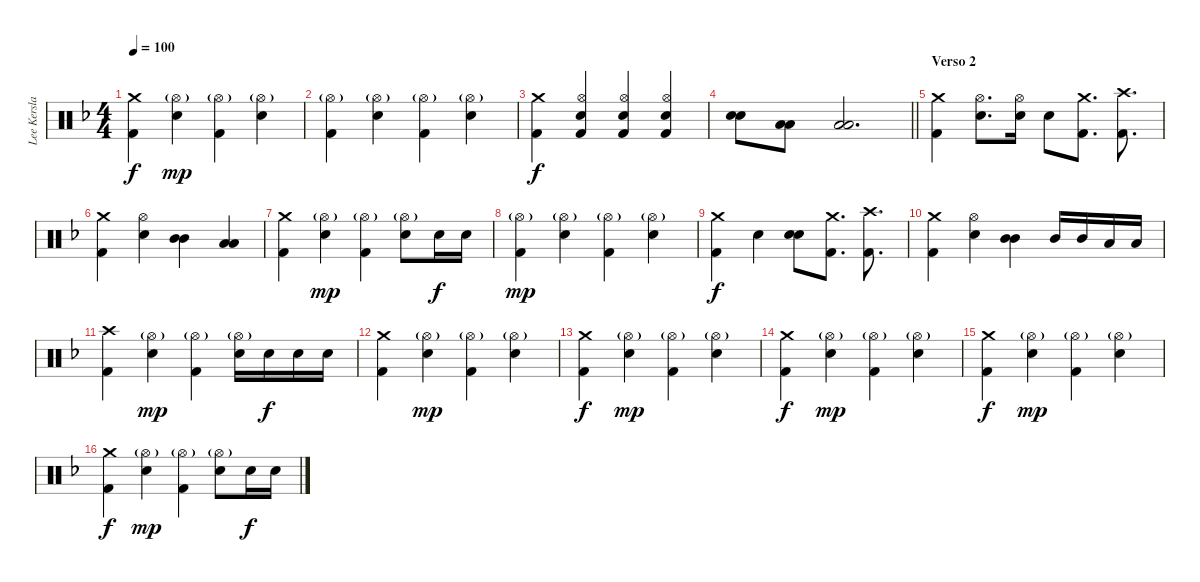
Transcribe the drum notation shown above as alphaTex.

\track ("Lee Kerslake - Drums" "Lee Kersla") {instrument percussion}
\staff {score}
\articulation defaults
\ts (4 4)
\tempo 100
\clef neutral
\ks dminor
("Crash medium (hit)" "Kick (hit) 2").4{dy f} ("Hi-Hat (open)"{g} "Snare (hit) 2").4{dy mp} ("Hi-Hat (open)"{g} "Kick (hit) 2").4 ("Hi-Hat (open)"{g} "Snare (hit) 2").4 |
("Hi-Hat (open)"{g} "Kick (hit) 2").4 ("Hi-Hat (open)"{g} "Snare (hit) 2").4 ("Hi-Hat (open)"{g} "Kick (hit) 2").4 ("Hi-Hat (open)"{g} "Snare (hit) 2").4 |
("Crash medium (hit)" "Kick (hit) 2").4{dy f} ("Hi-Hat (open)" "Snare (hit) 2" "Kick (hit) 2").4 ("Hi-Hat (open)" "Snare (hit) 2" "Kick (hit) 2").4 ("Hi-Hat (open)" "Snare (hit) 2" "Kick (hit) 2").4 |
\barLineRight lightlight
("Snare (hit) 2" "Snare (hit) 2").8{bd 240} ("Low Tom (hit)" "Low Tom (hit)").8{bd 240} ("Low Tom (hit)" "Low Tom (hit)").2{d bd 240} |
\section ("" "Verso 2")
("Crash medium (hit)" "Kick (hit) 2").4 ("Hi-Hat (open)" "Snare (hit) 2").8{d} ("Hi-Hat (open)" "Snare (hit) 2").16 "Snare (hit) 2".8 ("Crash medium (hit)" "Kick (hit) 2").8{d} ("Crash high (hit)" "Kick (hit) 2").8{d} |
("Crash medium (hit)" "Kick (hit) 2").4 ("Hi-Hat (open)" "Snare (hit) 2").4 ("Mid Tom (hit)" "Mid Tom (hit)").4{bd 240} ("Low Tom (hit)" "Low Tom (hit)").4{bd 240} |
("Crash medium (hit)" "Kick (hit) 2").4 ("Hi-Hat (open)"{g} "Snare (hit) 2").4{dy mp} ("Hi-Hat (open)"{g} "Kick (hit) 2").4 ("Hi-Hat (open)"{g} "Snare (hit) 2").8 "Snare (hit) 2".16{dy f} "Snare (hit) 2".16 |
("Hi-Hat (open)"{g} "Kick (hit) 2").4{dy mp} ("Hi-Hat (open)"{g} "Snare (hit) 2").4 ("Hi-Hat (open)"{g} "Kick (hit) 2").4 ("Hi-Hat (open)"{g} "Snare (hit) 2").4 |
("Crash medium (hit)" "Kick (hit) 2").4{dy f} "Snare (hit) 2".4 ("Snare (hit) 2" "Snare (hit) 2").8{bd 240} ("Crash medium (hit)" "Kick (hit) 2").8{d} ("Crash high (hit)" "Kick (hit) 2").8{d} |
("Crash medium (hit)" "Kick (hit) 2").4 ("Hi-Hat (open)" "Snare (hit) 2").4 ("Mid Tom (hit)" "Mid Tom (hit)").4{bd 240} "Mid Tom (hit)".16 "Mid Tom (hit)".16 "Low Tom (hit)".16 "Low Tom (hit)".16 |
("Crash high (hit)" "Kick (hit) 2").4 ("Hi-Hat (open)"{g} "Snare (hit) 2").4{dy mp} ("Hi-Hat (open)"{g} "Kick (hit) 2").4 ("Hi-Hat (open)"{g} "Snare (hit) 2").16 "Snare (hit) 2".16{dy f} "Snare (hit) 2".16 "Snare (hit) 2".16 |
("Crash medium (hit)" "Kick (hit) 2").4 ("Hi-Hat (open)"{g} "Snare (hit) 2").4{dy mp} ("Hi-Hat (open)"{g} "Kick (hit) 2").4 ("Hi-Hat (open)"{g} "Snare (hit) 2").4 |
("Crash medium (hit)" "Kick (hit) 2").4{dy f} ("Hi-Hat (open)"{g} "Snare (hit) 2").4{dy mp} ("Hi-Hat (open)"{g} "Kick (hit) 2").4 ("Hi-Hat (open)"{g} "Snare (hit) 2").4 |
("Crash medium (hit)" "Kick (hit) 2").4{dy f} ("Hi-Hat (open)"{g} "Snare (hit) 2").4{dy mp} ("Hi-Hat (open)"{g} "Kick (hit) 2").4 ("Hi-Hat (open)"{g} "Snare (hit) 2").4 |
("Crash medium (hit)" "Kick (hit) 2").4{dy f} ("Hi-Hat (open)"{g} "Snare (hit) 2").4{dy mp} ("Hi-Hat (open)"{g} "Kick (hit) 2").4 ("Hi-Hat (open)"{g} "Snare (hit) 2").4 |
("Crash medium (hit)" "Kick (hit) 2").4{dy f} ("Hi-Hat (open)"{g} "Snare (hit) 2").4{dy mp} ("Hi-Hat (open)"{g} "Kick (hit) 2").4 ("Hi-Hat (open)"{g} "Snare (hit) 2").8 "Snare (hit) 2".16{dy f} "Snare (hit) 2".16
